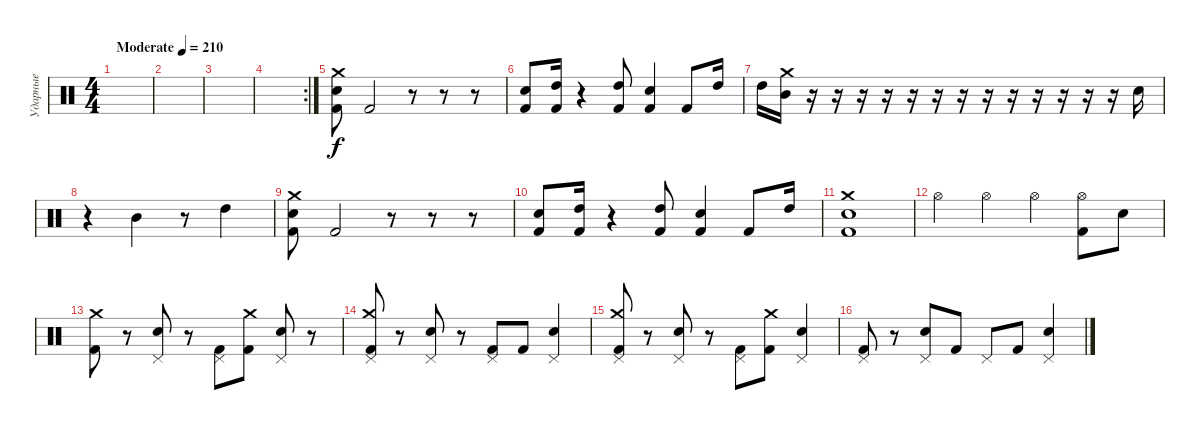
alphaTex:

\track ("Ударные" "Ударные") {instrument percussion}
\staff {score}
\articulation defaults
\ts (4 4)
\tempo (210 "Moderate")
\clef neutral
\ks c
|
|
|
\rc 2
|
("Electric Snare (hit)" "Kick (hit) 2" "Crash medium (hit)").8 "Kick (hit) 2".2 r.8 r.8 r.8 |
("Kick (hit) 2" "Electric Snare (hit)").8 ("Kick (hit) 2" "High Tom (hit)").16 r.4 ("Kick (hit) 2" "High Tom (hit)").8 ("Kick (hit) 2" "Electric Snare (hit)").4 "Kick (hit) 2".8 "High Tom (hit)".16 |
"High Tom (hit)".16 ("Mid Tom (hit)" "Crash medium (hit)").16 r.16 r.16 r.16 r.16 r.16 r.16 r.16 r.16 r.16 r.16 r.16 r.16 r.16 "Electric Snare (hit)".16 |
r.4 "Mid Tom (hit)".4 r.8 "High Tom (hit)".4 |
("Electric Snare (hit)" "Kick (hit) 2" "Crash medium (hit)").8 "Kick (hit) 2".2 r.8 r.8 r.8 |
("Kick (hit) 2" "Electric Snare (hit)").8 ("Kick (hit) 2" "High Tom (hit)").16 r.4 ("Kick (hit) 2" "High Tom (hit)").8 ("Kick (hit) 2" "Electric Snare (hit)").4 "Kick (hit) 2".8 "High Tom (hit)".16 |
("Kick (hit) 2" "Electric Snare (hit)" "Crash medium (hit)").1 |
"Hi-Hat (open)".4 "Hi-Hat (open)".4 "Hi-Hat (open)".4 ("Hi-Hat (open)" "Kick (hit) 2").8 "Electric Snare (hit)".8 |
("Kick (hit) 2" "Crash medium (hit)").8 r.8 ("Pedal Hi-Hat (hit)" "Electric Snare (hit)").8 r.8 ("Kick (hit) 2" "Pedal Hi-Hat (hit)").8 ("Kick (hit) 2" "Crash medium (hit)").8 ("Electric Snare (hit)" "Pedal Hi-Hat (hit)").8 r.8 |
("Kick (hit) 2" "Pedal Hi-Hat (hit)" "Crash medium (hit)").8 r.8 ("Pedal Hi-Hat (hit)" "Electric Snare (hit)").8 r.8 ("Kick (hit) 2" "Pedal Hi-Hat (hit)").8 "Kick (hit) 2".8 ("Electric Snare (hit)" "Pedal Hi-Hat (hit)").4 |
("Kick (hit) 2" "Pedal Hi-Hat (hit)" "Crash medium (hit)").8 r.8 ("Pedal Hi-Hat (hit)" "Electric Snare (hit)").8 r.8 ("Kick (hit) 2" "Pedal Hi-Hat (hit)").8 ("Kick (hit) 2" "Crash medium (hit)").8 ("Electric Snare (hit)" "Pedal Hi-Hat (hit)").4 |
("Kick (hit) 2" "Pedal Hi-Hat (hit)").8 r.8 ("Pedal Hi-Hat (hit)" "Electric Snare (hit)").8 "Kick (hit) 2".8 "Pedal Hi-Hat (hit)".8 "Kick (hit) 2".8 ("Electric Snare (hit)" "Pedal Hi-Hat (hit)").4
